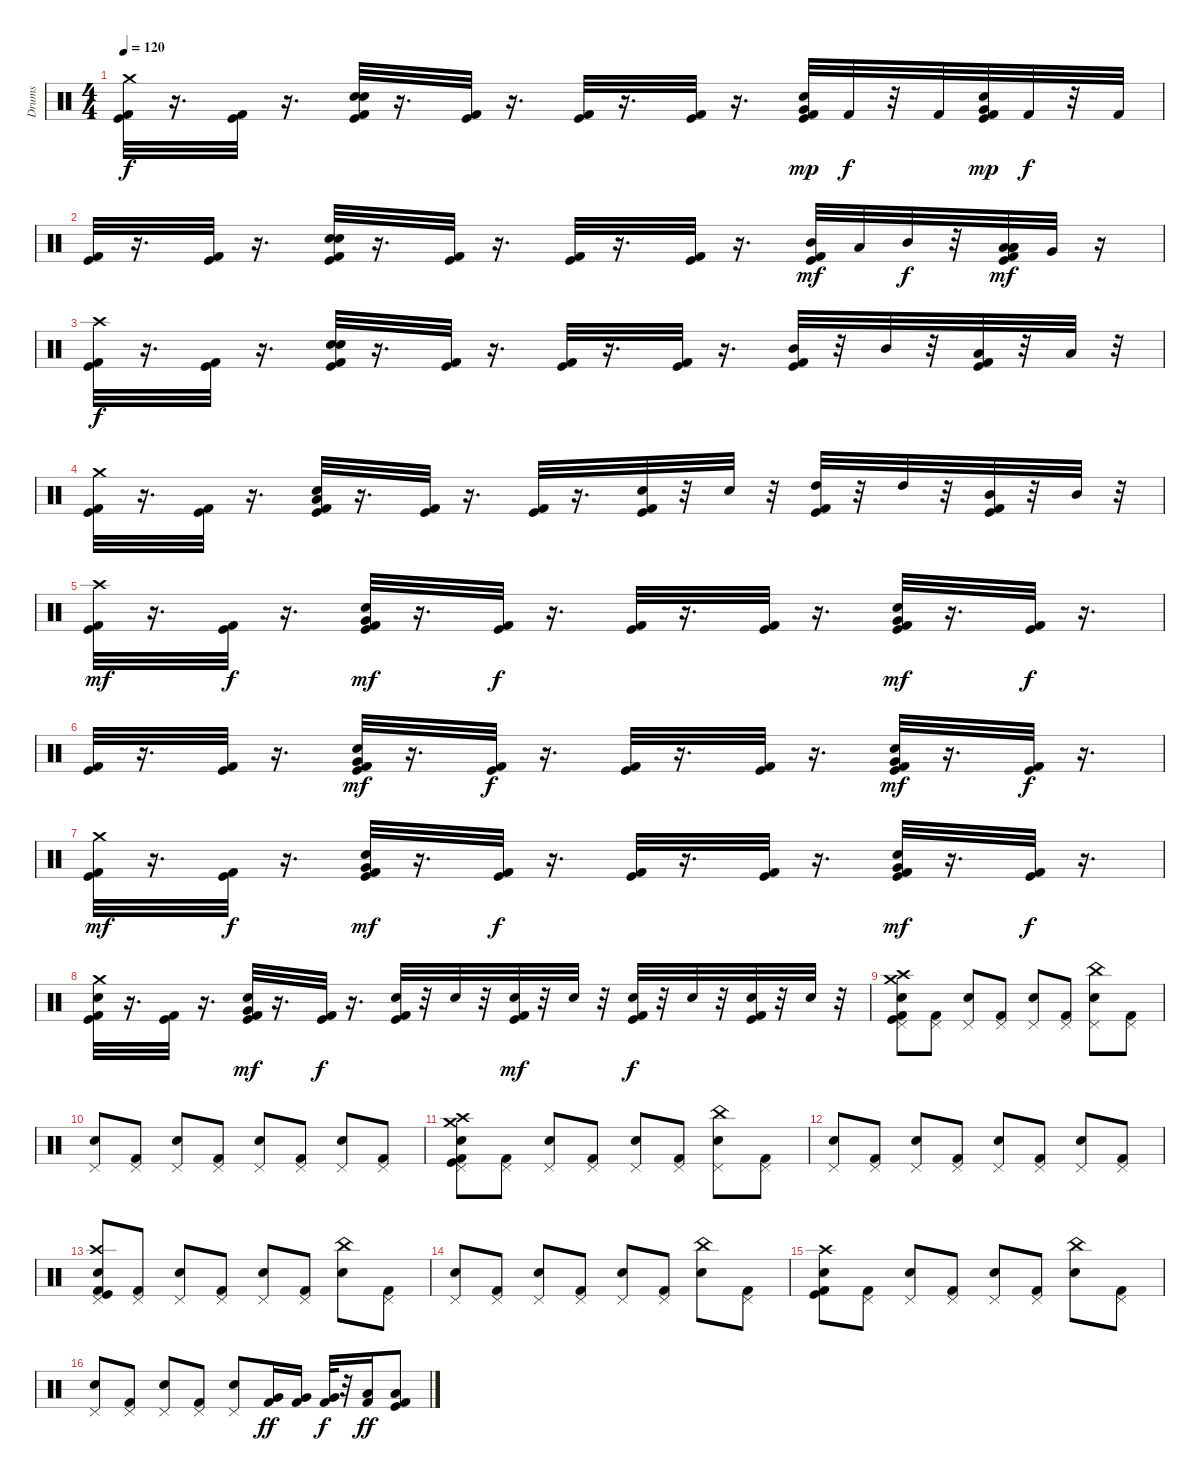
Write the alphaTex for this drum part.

\track ("Drums" "Drums") {instrument percussion}
\staff {score}
\articulation defaults
\ts (4 4)
\tempo 120
\clef neutral
\ks c
("Crash medium (hit)" "Kick (hit)" "Kick (hit) 2").32{dy f} r.16{d} ("Kick (hit)" "Kick (hit) 2").32 r.16{d} ("Kick (hit) 2" "Snare (hit) 2" "Kick (hit)" "Electric Snare (hit)").32 r.16{d} ("Kick (hit)" "Kick (hit) 2").32 r.16{d} ("Kick (hit) 2" "Kick (hit)").32 r.16{d} ("Kick (hit)" "Kick (hit) 2").32 r.16{d} ("Electric Snare (hit)" "Kick (hit) 2" "Very Low Tom (hit)" "Kick (hit)").32{dy mp} "Kick (hit) 2".32{dy f} r.32 "Kick (hit) 2".32 ("Electric Snare (hit)" "Kick (hit)" "Kick (hit) 2" "Very Low Tom (hit)").32{dy mp} "Kick (hit) 2".32{dy f} r.32 "Kick (hit) 2".32 |
("Kick (hit)" "Kick (hit) 2").32 r.16{d} ("Kick (hit)" "Kick (hit) 2").32 r.16{d} ("Kick (hit) 2" "Snare (hit) 2" "Kick (hit)" "Electric Snare (hit)").32 r.16{d} ("Kick (hit) 2" "Kick (hit)").32 r.16{d} ("Kick (hit) 2" "Kick (hit)").32 r.16{d} ("Kick (hit)" "Kick (hit) 2").32 r.16{d} ("Kick (hit) 2" "Mid Tom (hit)" "Kick (hit)").32{dy mf} "Low Tom (hit)".32 "Mid Tom (hit)".32{dy f} r.32 ("Low Tom (hit)" "Low Tom (hit)" "Kick (hit)" "Kick (hit) 2" "Low Tom (hit)").32{dy mf} "Very Low Tom (hit)".32 r.16 |
("Crash high (hit)" "Kick (hit)" "Kick (hit) 2").32{dy f} r.16{d} ("Kick (hit)" "Kick (hit) 2").32 r.16{d} ("Electric Snare (hit)" "Snare (hit) 2" "Kick (hit) 2" "Kick (hit)").32 r.16{d} ("Kick (hit)" "Kick (hit) 2").32 r.16{d} ("Kick (hit)" "Kick (hit) 2").32 r.16{d} ("Kick (hit) 2" "Kick (hit)").32 r.16{d} ("Mid Tom (hit)" "Kick (hit)" "Kick (hit) 2").32 r.32 "Mid Tom (hit)".32 r.32 ("Low Tom (hit)" "Kick (hit)" "Kick (hit) 2").32 r.32 "Low Tom (hit)".32 r.32 |
("Crash medium (hit)" "Kick (hit)" "Kick (hit) 2").32 r.16{d} ("Kick (hit)" "Kick (hit) 2").32 r.16{d} ("Electric Snare (hit)" "Low Tom (hit)" "Kick (hit)" "Kick (hit) 2").32 r.16{d} ("Kick (hit) 2" "Kick (hit)").32 r.16{d} ("Kick (hit) 2" "Kick (hit)").32 r.16{d} ("Snare (hit) 2" "Kick (hit) 2" "Kick (hit)").32 r.32 "Snare (hit) 2".32 r.32 ("High Tom (hit)" "Kick (hit)" "Kick (hit) 2").32 r.32 "High Tom (hit)".32 r.32 ("Mid Tom (hit)" "Kick (hit)" "Kick (hit) 2").32 r.32 "Mid Tom (hit)".32 r.32 |
("Crash high (hit)" "Kick (hit) 2" "Kick (hit)").32{dy mf} r.16{d} ("Kick (hit)" "Kick (hit) 2").32{dy f} r.16{d} ("Kick (hit)" "Kick (hit) 2" "Very Low Tom (hit)" "Electric Snare (hit)").32{dy mf} r.16{d} ("Kick (hit) 2" "Kick (hit)").32{dy f} r.16{d} ("Kick (hit)" "Kick (hit) 2").32 r.16{d} ("Kick (hit)" "Kick (hit) 2").32 r.16{d} ("Kick (hit) 2" "Kick (hit)" "Very Low Tom (hit)" "Electric Snare (hit)").32{dy mf} r.16{d} ("Kick (hit)" "Kick (hit) 2").32{dy f} r.16{d} |
("Kick (hit)" "Kick (hit) 2").32 r.16{d} ("Kick (hit)" "Kick (hit) 2").32 r.16{d} ("Electric Snare (hit)" "Very Low Tom (hit)" "Kick (hit)" "Kick (hit) 2").32{dy mf} r.16{d} ("Kick (hit)" "Kick (hit) 2").32{dy f} r.16{d} ("Kick (hit) 2" "Kick (hit)").32 r.16{d} ("Kick (hit)" "Kick (hit) 2").32 r.16{d} ("Electric Snare (hit)" "Very Low Tom (hit)" "Kick (hit)" "Kick (hit) 2").32{dy mf} r.16{d} ("Kick (hit)" "Kick (hit) 2").32{dy f} r.16{d} |
("Crash medium (hit)" "Kick (hit)" "Kick (hit) 2").32{dy mf} r.16{d} ("Kick (hit)" "Kick (hit) 2").32{dy f} r.16{d} ("Electric Snare (hit)" "Very Low Tom (hit)" "Kick (hit) 2" "Kick (hit)").32{dy mf} r.16{d} ("Kick (hit)" "Kick (hit) 2").32{dy f} r.16{d} ("Kick (hit) 2" "Kick (hit)").32 r.16{d} ("Kick (hit)" "Kick (hit) 2").32 r.16{d} ("Electric Snare (hit)" "Very Low Tom (hit)" "Kick (hit)" "Kick (hit) 2").32{dy mf} r.16{d} ("Kick (hit)" "Kick (hit) 2").32{dy f} r.16{d} |
("Electric Snare (hit)" "Crash medium (hit)" "Kick (hit)" "Kick (hit) 2").32 r.16{d} ("Kick (hit)" "Kick (hit) 2").32 r.16{d} ("Electric Snare (hit)" "Very Low Tom (hit)" "Kick (hit)" "Kick (hit) 2").32{dy mf} r.16{d} ("Kick (hit)" "Kick (hit) 2").32{dy f} r.16{d} ("Snare (hit) 2" "Kick (hit) 2" "Kick (hit)").32 r.32 "Snare (hit) 2".32 r.32 ("Snare (hit) 2" "Kick (hit)" "Kick (hit) 2").32{dy mf} r.32 "Snare (hit) 2".32 r.32 ("Snare (hit) 2" "Kick (hit) 2" "Kick (hit)").32{dy f} r.32 "Snare (hit) 2".32 r.32 ("Snare (hit) 2" "Kick (hit)" "Kick (hit) 2").32 r.32 "Snare (hit) 2".32 r.32 |
("Kick (hit) 2" "Crash medium (hit)" "Pedal Hi-Hat (hit)" "Snare (hit) 2" "Crash high (hit)" "Kick (hit)").8 ("Pedal Hi-Hat (hit)" "Kick (hit) 2").8 ("Snare (hit) 2" "Pedal Hi-Hat (hit)").8 ("Pedal Hi-Hat (hit)" "Kick (hit) 2").8 ("Pedal Hi-Hat (hit)" "Snare (hit) 2").8 ("Kick (hit) 2" "Pedal Hi-Hat (hit)").8 ("China (hit)" "Snare (hit) 2" "Pedal Hi-Hat (hit)").8 ("Pedal Hi-Hat (hit)" "Kick (hit) 2").8 |
("Snare (hit) 2" "Pedal Hi-Hat (hit)").8 ("Kick (hit) 2" "Pedal Hi-Hat (hit)").8 ("Pedal Hi-Hat (hit)" "Snare (hit) 2").8 ("Pedal Hi-Hat (hit)" "Kick (hit) 2").8 ("Snare (hit) 2" "Pedal Hi-Hat (hit)").8 ("Pedal Hi-Hat (hit)" "Kick (hit) 2").8 ("Snare (hit) 2" "Pedal Hi-Hat (hit)").8 ("Kick (hit) 2" "Pedal Hi-Hat (hit)").8 |
("Pedal Hi-Hat (hit)" "Snare (hit) 2" "Kick (hit) 2" "Crash medium (hit)" "Kick (hit)" "Crash high (hit)").8 ("Pedal Hi-Hat (hit)" "Kick (hit) 2").8 ("Snare (hit) 2" "Pedal Hi-Hat (hit)").8 ("Pedal Hi-Hat (hit)" "Kick (hit) 2").8 ("Pedal Hi-Hat (hit)" "Snare (hit) 2").8 ("Kick (hit) 2" "Pedal Hi-Hat (hit)").8 ("Snare (hit) 2" "Pedal Hi-Hat (hit)" "China (hit)").8 ("Pedal Hi-Hat (hit)" "Kick (hit) 2").8 |
("Snare (hit) 2" "Pedal Hi-Hat (hit)").8 ("Kick (hit) 2" "Pedal Hi-Hat (hit)").8 ("Pedal Hi-Hat (hit)" "Snare (hit) 2").8 ("Pedal Hi-Hat (hit)" "Kick (hit) 2").8 ("Pedal Hi-Hat (hit)" "Snare (hit) 2").8 ("Pedal Hi-Hat (hit)" "Kick (hit) 2").8 ("Pedal Hi-Hat (hit)" "Snare (hit) 2").8 ("Pedal Hi-Hat (hit)" "Kick (hit) 2").8 |
("Kick (hit)" "Pedal Hi-Hat (hit)" "Snare (hit) 2" "Kick (hit) 2" "Crash high (hit)").8 ("Kick (hit) 2" "Pedal Hi-Hat (hit)").8 ("Pedal Hi-Hat (hit)" "Snare (hit) 2").8 ("Pedal Hi-Hat (hit)" "Kick (hit) 2").8 ("Pedal Hi-Hat (hit)" "Snare (hit) 2").8 ("Pedal Hi-Hat (hit)" "Kick (hit) 2").8 ("China (hit)" "Snare (hit) 2").8 ("Pedal Hi-Hat (hit)" "Kick (hit) 2").8 |
("Snare (hit) 2" "Pedal Hi-Hat (hit)").8 ("Kick (hit) 2" "Pedal Hi-Hat (hit)").8 ("Pedal Hi-Hat (hit)" "Snare (hit) 2").8 ("Kick (hit) 2" "Pedal Hi-Hat (hit)").8 ("Pedal Hi-Hat (hit)" "Snare (hit) 2").8 ("Kick (hit) 2" "Pedal Hi-Hat (hit)").8 ("China (hit)" "Snare (hit) 2").8 ("Pedal Hi-Hat (hit)" "Kick (hit) 2").8 |
("Snare (hit) 2" "Kick (hit) 2" "Crash high (hit)" "Kick (hit)").8 ("Kick (hit) 2" "Pedal Hi-Hat (hit)").8 ("Pedal Hi-Hat (hit)" "Snare (hit) 2").8 ("Pedal Hi-Hat (hit)" "Kick (hit) 2").8 ("Snare (hit) 2" "Pedal Hi-Hat (hit)").8 ("Pedal Hi-Hat (hit)" "Kick (hit) 2").8 ("China (hit)" "Snare (hit) 2").8 ("Pedal Hi-Hat (hit)" "Kick (hit) 2").8 |
("Snare (hit) 2" "Pedal Hi-Hat (hit)").8 ("Kick (hit) 2" "Pedal Hi-Hat (hit)").8 ("Snare (hit) 2" "Pedal Hi-Hat (hit)").8 ("Pedal Hi-Hat (hit)" "Kick (hit) 2").8 ("Pedal Hi-Hat (hit)" "Snare (hit) 2").8 ("Very Low Tom (hit)" "Kick (hit) 2").16{dy ff} ("Very Low Tom (hit)" "Kick (hit) 2").16 ("Very Low Tom (hit)" "Kick (hit) 2").32{dy f} r.32 ("Low Tom (hit)" "Kick (hit) 2").16{dy ff} ("Kick (hit) 2" "Kick (hit)" "Low Floor Tom (hit)").8
